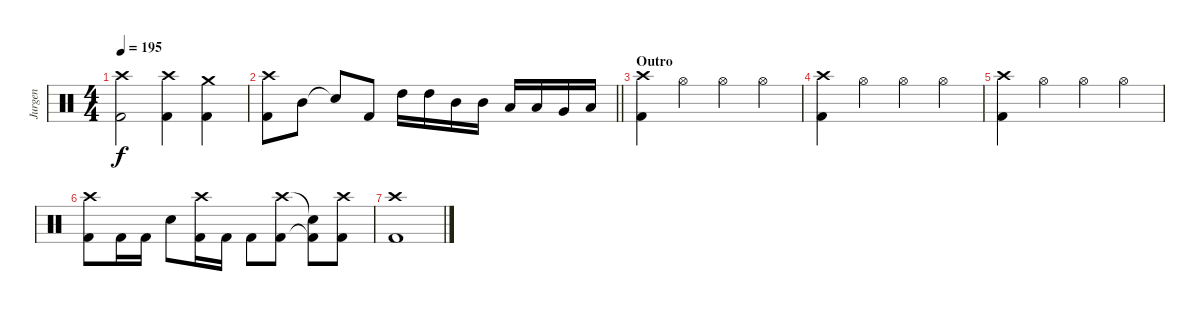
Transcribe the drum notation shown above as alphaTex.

\track ("Jurgen" "Jurgen") {instrument percussion}
\staff {score}
\articulation defaults
\ts (4 4)
\tempo 195
\clef neutral
\ks c
("Crash high (hit)" "Kick (hit) 2").2{dy f} ("Crash high (hit)" "Kick (hit) 2").4 ("Crash medium (hit)" "Kick (hit) 2").4 |
\barLineRight lightlight
("Crash high (hit)" "Kick (hit) 2").8 "Mid Tom (hit)".8 "Snare (hit)"{t}.8 "Kick (hit) 2".8 "High Tom (hit)".16 "High Tom (hit)".16 "Mid Tom (hit)".16 "Mid Tom (hit)".16 "Low Tom (hit)".16 "Low Tom (hit)".16 "Very Low Tom (hit)".16 "Low Floor Tom (hit)".16 |
\section ("" "Outro")
("Crash high (hit)" "Kick (hit) 2").4 "Hi-Hat (open)".4 "Hi-Hat (open)".4 "Hi-Hat (open)".4 |
("Crash high (hit)" "Kick (hit) 2").4 "Hi-Hat (open)".4 "Hi-Hat (open)".4 "Hi-Hat (open)".4 |
("Crash high (hit)" "Kick (hit) 2").4 "Hi-Hat (open)".4 "Hi-Hat (open)".4 "Hi-Hat (open)".4 |
("Crash high (hit)" "Kick (hit) 2").8 "Kick (hit) 2".16 "Kick (hit) 2".16 "Snare (hit) 2".8 ("Crash high (hit)" "Kick (hit) 2").16 "Kick (hit) 2".16 "Kick (hit) 2".8 ("Crash high (hit)" "Kick (hit) 2").8 ("Snare (hit)"{t} "Kick (hit) 2"{t}).8 ("Crash high (hit)" "Kick (hit) 2").8 |
("Crash high (hit)" "Kick (hit) 2").1
